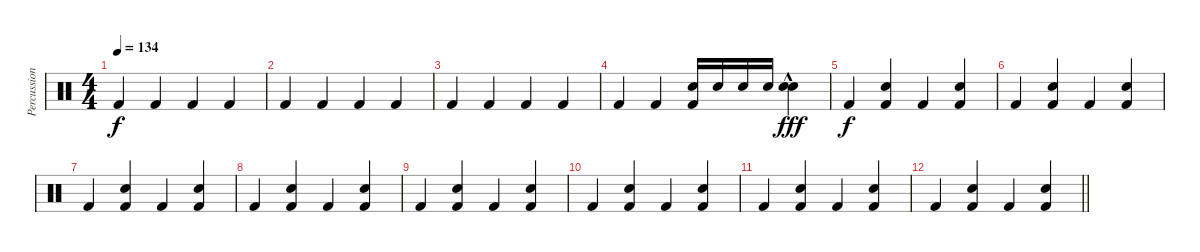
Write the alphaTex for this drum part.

\track ("Percussion" "Percussion") {instrument percussion}
\staff {score}
\articulation defaults
\ts (4 4)
\tempo 134
\clef neutral
\ks c "Kick (hit) 2".4{dy f} "Kick (hit) 2".4 "Kick (hit) 2".4 "Kick (hit) 2".4
|
"Kick (hit) 2".4 "Kick (hit) 2".4 "Kick (hit) 2".4 "Kick (hit) 2".4 |
"Kick (hit) 2".4 "Kick (hit) 2".4 "Kick (hit) 2".4 "Kick (hit) 2".4 |
"Kick (hit) 2".4 "Kick (hit) 2".4 ("Snare (hit) 2" "Kick (hit) 2").16 "Snare (hit) 2".16 "Snare (hit) 2".16 "Snare (hit) 2".16 ("Snare (hit) 2"{hac} "Snare (hit) 2"{hac}).4{dy fff} |
"Kick (hit) 2".4{dy f} ("Snare (hit) 2" "Kick (hit) 2").4 "Kick (hit) 2".4 ("Snare (hit) 2" "Kick (hit) 2").4 |
"Kick (hit) 2".4 ("Snare (hit) 2" "Kick (hit) 2").4 "Kick (hit) 2".4 ("Snare (hit) 2" "Kick (hit) 2").4 |
"Kick (hit) 2".4 ("Snare (hit) 2" "Kick (hit) 2").4 "Kick (hit) 2".4 ("Snare (hit) 2" "Kick (hit) 2").4 |
"Kick (hit) 2".4 ("Snare (hit) 2" "Kick (hit) 2").4 "Kick (hit) 2".4 ("Snare (hit) 2" "Kick (hit) 2").4 |
"Kick (hit) 2".4 ("Snare (hit) 2" "Kick (hit) 2").4 "Kick (hit) 2".4 ("Snare (hit) 2" "Kick (hit) 2").4 |
"Kick (hit) 2".4 ("Snare (hit) 2" "Kick (hit) 2").4 "Kick (hit) 2".4 ("Snare (hit) 2" "Kick (hit) 2").4 |
"Kick (hit) 2".4 ("Snare (hit) 2" "Kick (hit) 2").4 "Kick (hit) 2".4 ("Snare (hit) 2" "Kick (hit) 2").4 |
\barLineRight lightlight "Kick (hit) 2".4
("Snare (hit) 2" "Kick (hit) 2").4 "Kick (hit) 2".4 ("Snare (hit) 2" "Kick (hit) 2").4
